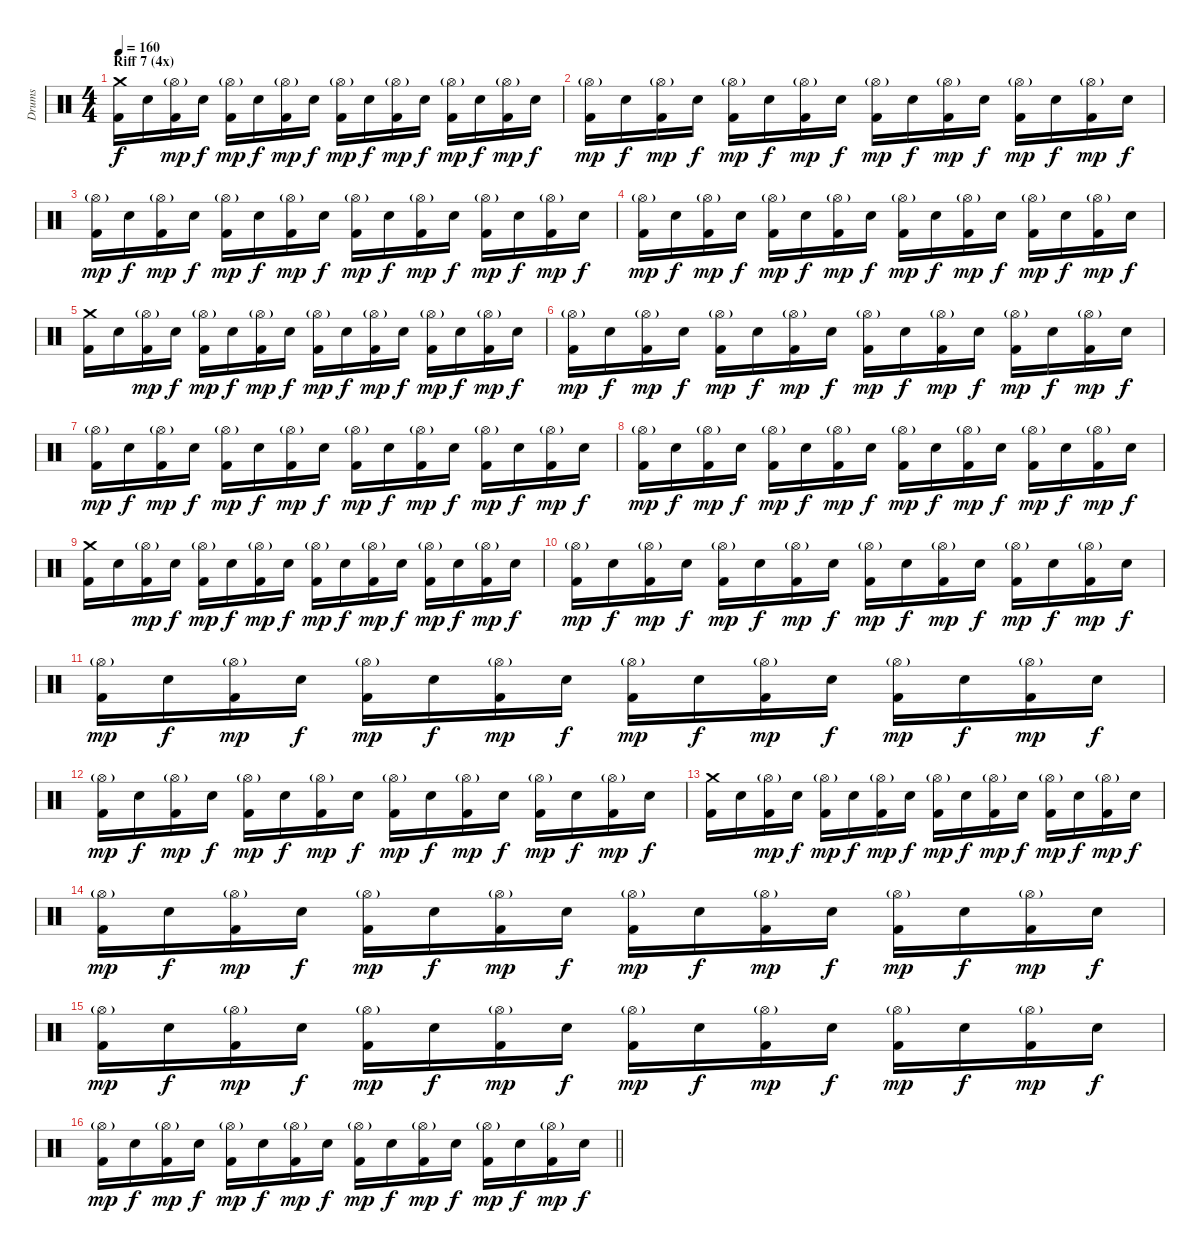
\track ("Drums" "Drums") {instrument percussion}
\staff {score}
\articulation defaults
\ts (4 4)
\section ("" "Riff 7 (4x)")
\tempo 160
\clef neutral
\ks c
("Crash medium (hit)" "Kick (hit) 2").16{dy f} "Electric Snare (hit)".16 ("Hi-Hat (open)"{g} "Kick (hit) 2").16{dy mp} "Electric Snare (hit)".16{dy f} ("Hi-Hat (open)"{g} "Kick (hit) 2").16{dy mp} "Electric Snare (hit)".16{dy f} ("Hi-Hat (open)"{g} "Kick (hit) 2").16{dy mp} "Electric Snare (hit)".16{dy f} ("Hi-Hat (open)"{g} "Kick (hit) 2").16{dy mp} "Electric Snare (hit)".16{dy f} ("Hi-Hat (open)"{g} "Kick (hit) 2").16{dy mp} "Electric Snare (hit)".16{dy f} ("Hi-Hat (open)"{g} "Kick (hit) 2").16{dy mp} "Electric Snare (hit)".16{dy f} ("Hi-Hat (open)"{g} "Kick (hit) 2").16{dy mp} "Electric Snare (hit)".16{dy f} |
("Hi-Hat (open)"{g} "Kick (hit) 2").16{dy mp} "Electric Snare (hit)".16{dy f} ("Hi-Hat (open)"{g} "Kick (hit) 2").16{dy mp} "Electric Snare (hit)".16{dy f} ("Hi-Hat (open)"{g} "Kick (hit) 2").16{dy mp} "Electric Snare (hit)".16{dy f} ("Hi-Hat (open)"{g} "Kick (hit) 2").16{dy mp} "Electric Snare (hit)".16{dy f} ("Hi-Hat (open)"{g} "Kick (hit) 2").16{dy mp} "Electric Snare (hit)".16{dy f} ("Hi-Hat (open)"{g} "Kick (hit) 2").16{dy mp} "Electric Snare (hit)".16{dy f} ("Hi-Hat (open)"{g} "Kick (hit) 2").16{dy mp} "Electric Snare (hit)".16{dy f} ("Hi-Hat (open)"{g} "Kick (hit) 2").16{dy mp} "Electric Snare (hit)".16{dy f} |
("Hi-Hat (open)"{g} "Kick (hit) 2").16{dy mp} "Electric Snare (hit)".16{dy f} ("Hi-Hat (open)"{g} "Kick (hit) 2").16{dy mp} "Electric Snare (hit)".16{dy f} ("Hi-Hat (open)"{g} "Kick (hit) 2").16{dy mp} "Electric Snare (hit)".16{dy f} ("Hi-Hat (open)"{g} "Kick (hit) 2").16{dy mp} "Electric Snare (hit)".16{dy f} ("Hi-Hat (open)"{g} "Kick (hit) 2").16{dy mp} "Electric Snare (hit)".16{dy f} ("Hi-Hat (open)"{g} "Kick (hit) 2").16{dy mp} "Electric Snare (hit)".16{dy f} ("Hi-Hat (open)"{g} "Kick (hit) 2").16{dy mp} "Electric Snare (hit)".16{dy f} ("Hi-Hat (open)"{g} "Kick (hit) 2").16{dy mp} "Electric Snare (hit)".16{dy f} |
("Hi-Hat (open)"{g} "Kick (hit) 2").16{dy mp} "Electric Snare (hit)".16{dy f} ("Hi-Hat (open)"{g} "Kick (hit) 2").16{dy mp} "Electric Snare (hit)".16{dy f} ("Hi-Hat (open)"{g} "Kick (hit) 2").16{dy mp} "Electric Snare (hit)".16{dy f} ("Hi-Hat (open)"{g} "Kick (hit) 2").16{dy mp} "Electric Snare (hit)".16{dy f} ("Hi-Hat (open)"{g} "Kick (hit) 2").16{dy mp} "Electric Snare (hit)".16{dy f} ("Hi-Hat (open)"{g} "Kick (hit) 2").16{dy mp} "Electric Snare (hit)".16{dy f} ("Hi-Hat (open)"{g} "Kick (hit) 2").16{dy mp} "Electric Snare (hit)".16{dy f} ("Hi-Hat (open)"{g} "Kick (hit) 2").16{dy mp} "Electric Snare (hit)".16{dy f} |
("Crash medium (hit)" "Kick (hit) 2").16 "Electric Snare (hit)".16 ("Hi-Hat (open)"{g} "Kick (hit) 2").16{dy mp} "Electric Snare (hit)".16{dy f} ("Hi-Hat (open)"{g} "Kick (hit) 2").16{dy mp} "Electric Snare (hit)".16{dy f} ("Hi-Hat (open)"{g} "Kick (hit) 2").16{dy mp} "Electric Snare (hit)".16{dy f} ("Hi-Hat (open)"{g} "Kick (hit) 2").16{dy mp} "Electric Snare (hit)".16{dy f} ("Hi-Hat (open)"{g} "Kick (hit) 2").16{dy mp} "Electric Snare (hit)".16{dy f} ("Hi-Hat (open)"{g} "Kick (hit) 2").16{dy mp} "Electric Snare (hit)".16{dy f} ("Hi-Hat (open)"{g} "Kick (hit) 2").16{dy mp} "Electric Snare (hit)".16{dy f} |
("Hi-Hat (open)"{g} "Kick (hit) 2").16{dy mp} "Electric Snare (hit)".16{dy f} ("Hi-Hat (open)"{g} "Kick (hit) 2").16{dy mp} "Electric Snare (hit)".16{dy f} ("Hi-Hat (open)"{g} "Kick (hit) 2").16{dy mp} "Electric Snare (hit)".16{dy f} ("Hi-Hat (open)"{g} "Kick (hit) 2").16{dy mp} "Electric Snare (hit)".16{dy f} ("Hi-Hat (open)"{g} "Kick (hit) 2").16{dy mp} "Electric Snare (hit)".16{dy f} ("Hi-Hat (open)"{g} "Kick (hit) 2").16{dy mp} "Electric Snare (hit)".16{dy f} ("Hi-Hat (open)"{g} "Kick (hit) 2").16{dy mp} "Electric Snare (hit)".16{dy f} ("Hi-Hat (open)"{g} "Kick (hit) 2").16{dy mp} "Electric Snare (hit)".16{dy f} |
("Hi-Hat (open)"{g} "Kick (hit) 2").16{dy mp} "Electric Snare (hit)".16{dy f} ("Hi-Hat (open)"{g} "Kick (hit) 2").16{dy mp} "Electric Snare (hit)".16{dy f} ("Hi-Hat (open)"{g} "Kick (hit) 2").16{dy mp} "Electric Snare (hit)".16{dy f} ("Hi-Hat (open)"{g} "Kick (hit) 2").16{dy mp} "Electric Snare (hit)".16{dy f} ("Hi-Hat (open)"{g} "Kick (hit) 2").16{dy mp} "Electric Snare (hit)".16{dy f} ("Hi-Hat (open)"{g} "Kick (hit) 2").16{dy mp} "Electric Snare (hit)".16{dy f} ("Hi-Hat (open)"{g} "Kick (hit) 2").16{dy mp} "Electric Snare (hit)".16{dy f} ("Hi-Hat (open)"{g} "Kick (hit) 2").16{dy mp} "Electric Snare (hit)".16{dy f} |
("Hi-Hat (open)"{g} "Kick (hit) 2").16{dy mp} "Electric Snare (hit)".16{dy f} ("Hi-Hat (open)"{g} "Kick (hit) 2").16{dy mp} "Electric Snare (hit)".16{dy f} ("Hi-Hat (open)"{g} "Kick (hit) 2").16{dy mp} "Electric Snare (hit)".16{dy f} ("Hi-Hat (open)"{g} "Kick (hit) 2").16{dy mp} "Electric Snare (hit)".16{dy f} ("Hi-Hat (open)"{g} "Kick (hit) 2").16{dy mp} "Electric Snare (hit)".16{dy f} ("Hi-Hat (open)"{g} "Kick (hit) 2").16{dy mp} "Electric Snare (hit)".16{dy f} ("Hi-Hat (open)"{g} "Kick (hit) 2").16{dy mp} "Electric Snare (hit)".16{dy f} ("Hi-Hat (open)"{g} "Kick (hit) 2").16{dy mp} "Electric Snare (hit)".16{dy f} |
("Crash medium (hit)" "Kick (hit) 2").16 "Electric Snare (hit)".16 ("Hi-Hat (open)"{g} "Kick (hit) 2").16{dy mp} "Electric Snare (hit)".16{dy f} ("Hi-Hat (open)"{g} "Kick (hit) 2").16{dy mp} "Electric Snare (hit)".16{dy f} ("Hi-Hat (open)"{g} "Kick (hit) 2").16{dy mp} "Electric Snare (hit)".16{dy f} ("Hi-Hat (open)"{g} "Kick (hit) 2").16{dy mp} "Electric Snare (hit)".16{dy f} ("Hi-Hat (open)"{g} "Kick (hit) 2").16{dy mp} "Electric Snare (hit)".16{dy f} ("Hi-Hat (open)"{g} "Kick (hit) 2").16{dy mp} "Electric Snare (hit)".16{dy f} ("Hi-Hat (open)"{g} "Kick (hit) 2").16{dy mp} "Electric Snare (hit)".16{dy f} |
("Hi-Hat (open)"{g} "Kick (hit) 2").16{dy mp} "Electric Snare (hit)".16{dy f} ("Hi-Hat (open)"{g} "Kick (hit) 2").16{dy mp} "Electric Snare (hit)".16{dy f} ("Hi-Hat (open)"{g} "Kick (hit) 2").16{dy mp} "Electric Snare (hit)".16{dy f} ("Hi-Hat (open)"{g} "Kick (hit) 2").16{dy mp} "Electric Snare (hit)".16{dy f} ("Hi-Hat (open)"{g} "Kick (hit) 2").16{dy mp} "Electric Snare (hit)".16{dy f} ("Hi-Hat (open)"{g} "Kick (hit) 2").16{dy mp} "Electric Snare (hit)".16{dy f} ("Hi-Hat (open)"{g} "Kick (hit) 2").16{dy mp} "Electric Snare (hit)".16{dy f} ("Hi-Hat (open)"{g} "Kick (hit) 2").16{dy mp} "Electric Snare (hit)".16{dy f} |
("Hi-Hat (open)"{g} "Kick (hit) 2").16{dy mp} "Electric Snare (hit)".16{dy f} ("Hi-Hat (open)"{g} "Kick (hit) 2").16{dy mp} "Electric Snare (hit)".16{dy f} ("Hi-Hat (open)"{g} "Kick (hit) 2").16{dy mp} "Electric Snare (hit)".16{dy f} ("Hi-Hat (open)"{g} "Kick (hit) 2").16{dy mp} "Electric Snare (hit)".16{dy f} ("Hi-Hat (open)"{g} "Kick (hit) 2").16{dy mp} "Electric Snare (hit)".16{dy f} ("Hi-Hat (open)"{g} "Kick (hit) 2").16{dy mp} "Electric Snare (hit)".16{dy f} ("Hi-Hat (open)"{g} "Kick (hit) 2").16{dy mp} "Electric Snare (hit)".16{dy f} ("Hi-Hat (open)"{g} "Kick (hit) 2").16{dy mp} "Electric Snare (hit)".16{dy f} |
("Hi-Hat (open)"{g} "Kick (hit) 2").16{dy mp} "Electric Snare (hit)".16{dy f} ("Hi-Hat (open)"{g} "Kick (hit) 2").16{dy mp} "Electric Snare (hit)".16{dy f} ("Hi-Hat (open)"{g} "Kick (hit) 2").16{dy mp} "Electric Snare (hit)".16{dy f} ("Hi-Hat (open)"{g} "Kick (hit) 2").16{dy mp} "Electric Snare (hit)".16{dy f} ("Hi-Hat (open)"{g} "Kick (hit) 2").16{dy mp} "Electric Snare (hit)".16{dy f} ("Hi-Hat (open)"{g} "Kick (hit) 2").16{dy mp} "Electric Snare (hit)".16{dy f} ("Hi-Hat (open)"{g} "Kick (hit) 2").16{dy mp} "Electric Snare (hit)".16{dy f} ("Hi-Hat (open)"{g} "Kick (hit) 2").16{dy mp} "Electric Snare (hit)".16{dy f} |
("Crash medium (hit)" "Kick (hit) 2").16 "Electric Snare (hit)".16 ("Hi-Hat (open)"{g} "Kick (hit) 2").16{dy mp} "Electric Snare (hit)".16{dy f} ("Hi-Hat (open)"{g} "Kick (hit) 2").16{dy mp} "Electric Snare (hit)".16{dy f} ("Hi-Hat (open)"{g} "Kick (hit) 2").16{dy mp} "Electric Snare (hit)".16{dy f} ("Hi-Hat (open)"{g} "Kick (hit) 2").16{dy mp} "Electric Snare (hit)".16{dy f} ("Hi-Hat (open)"{g} "Kick (hit) 2").16{dy mp} "Electric Snare (hit)".16{dy f} ("Hi-Hat (open)"{g} "Kick (hit) 2").16{dy mp} "Electric Snare (hit)".16{dy f} ("Hi-Hat (open)"{g} "Kick (hit) 2").16{dy mp} "Electric Snare (hit)".16{dy f} |
("Hi-Hat (open)"{g} "Kick (hit) 2").16{dy mp} "Electric Snare (hit)".16{dy f} ("Hi-Hat (open)"{g} "Kick (hit) 2").16{dy mp} "Electric Snare (hit)".16{dy f} ("Hi-Hat (open)"{g} "Kick (hit) 2").16{dy mp} "Electric Snare (hit)".16{dy f} ("Hi-Hat (open)"{g} "Kick (hit) 2").16{dy mp} "Electric Snare (hit)".16{dy f} ("Hi-Hat (open)"{g} "Kick (hit) 2").16{dy mp} "Electric Snare (hit)".16{dy f} ("Hi-Hat (open)"{g} "Kick (hit) 2").16{dy mp} "Electric Snare (hit)".16{dy f} ("Hi-Hat (open)"{g} "Kick (hit) 2").16{dy mp} "Electric Snare (hit)".16{dy f} ("Hi-Hat (open)"{g} "Kick (hit) 2").16{dy mp} "Electric Snare (hit)".16{dy f} |
("Hi-Hat (open)"{g} "Kick (hit) 2").16{dy mp} "Electric Snare (hit)".16{dy f} ("Hi-Hat (open)"{g} "Kick (hit) 2").16{dy mp} "Electric Snare (hit)".16{dy f} ("Hi-Hat (open)"{g} "Kick (hit) 2").16{dy mp} "Electric Snare (hit)".16{dy f} ("Hi-Hat (open)"{g} "Kick (hit) 2").16{dy mp} "Electric Snare (hit)".16{dy f} ("Hi-Hat (open)"{g} "Kick (hit) 2").16{dy mp} "Electric Snare (hit)".16{dy f} ("Hi-Hat (open)"{g} "Kick (hit) 2").16{dy mp} "Electric Snare (hit)".16{dy f} ("Hi-Hat (open)"{g} "Kick (hit) 2").16{dy mp} "Electric Snare (hit)".16{dy f} ("Hi-Hat (open)"{g} "Kick (hit) 2").16{dy mp} "Electric Snare (hit)".16{dy f} |
\barLineRight lightlight
("Hi-Hat (open)"{g} "Kick (hit) 2").16{dy mp} "Electric Snare (hit)".16{dy f} ("Hi-Hat (open)"{g} "Kick (hit) 2").16{dy mp} "Electric Snare (hit)".16{dy f} ("Hi-Hat (open)"{g} "Kick (hit) 2").16{dy mp} "Electric Snare (hit)".16{dy f} ("Hi-Hat (open)"{g} "Kick (hit) 2").16{dy mp} "Electric Snare (hit)".16{dy f} ("Hi-Hat (open)"{g} "Kick (hit) 2").16{dy mp} "Electric Snare (hit)".16{dy f} ("Hi-Hat (open)"{g} "Kick (hit) 2").16{dy mp} "Electric Snare (hit)".16{dy f} ("Hi-Hat (open)"{g} "Kick (hit) 2").16{dy mp} "Electric Snare (hit)".16{dy f} ("Hi-Hat (open)"{g} "Kick (hit) 2").16{dy mp} "Electric Snare (hit)".16{dy f}
